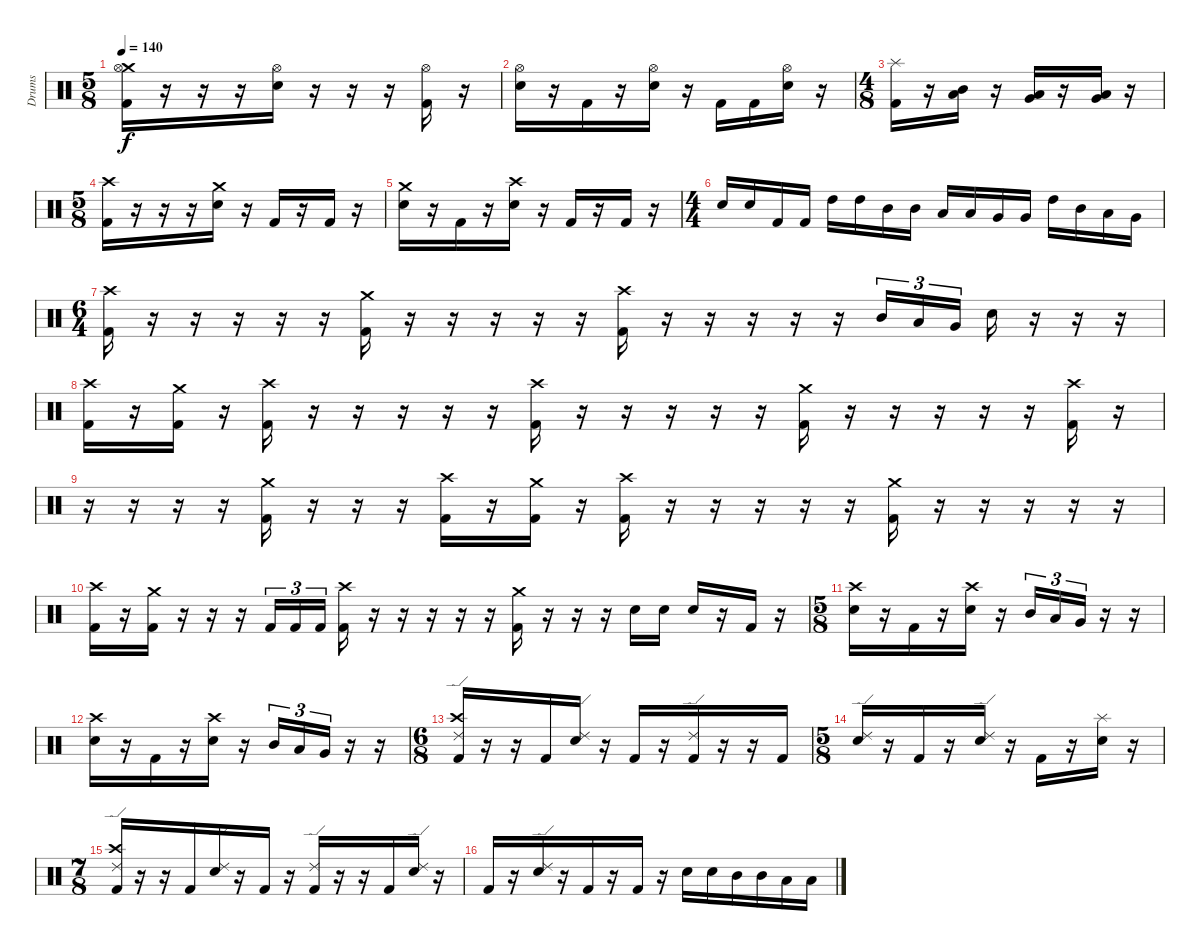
\track ("Drums" "Drums") {instrument percussion}
\staff {score}
\articulation defaults
\ts (5 8)
\tempo 140
\clef neutral
\ks c
("Crash medium (hit)" "Hi-Hat (open)" "Kick (hit) 2").16{dy f} r.16 r.16 r.16 ("Hi-Hat (open)" "Electric Snare (hit)").16 r.16 r.16 r.16 ("Hi-Hat (open)" "Kick (hit) 2").16 r.16 |
("Hi-Hat (open)" "Electric Snare (hit)").16 r.16 "Kick (hit) 2".16 r.16 ("Hi-Hat (open)" "Electric Snare (hit)").16 r.16 "Kick (hit) 2".16 "Kick (hit) 2".16 ("Hi-Hat (open)" "Electric Snare (hit)").16 r.16 |
\ts (4 8)
("Splash (hit)" "Kick (hit) 2").16 r.16 ("Low Tom (hit)" "Mid Tom (hit)").16 r.16 ("Very Low Tom (hit)" "Low Tom (hit)").16 r.16 ("Very Low Tom (hit)" "Low Tom (hit)").16 r.16 |
\ts (5 8)
("Crash high (hit)" "Kick (hit) 2").16 r.16 r.16 r.16 ("Crash medium (hit)" "Electric Snare (hit)").16 r.16 "Kick (hit) 2".16 r.16 "Kick (hit) 2".16 r.16 |
("Crash medium (hit)" "Electric Snare (hit)").16 r.16 "Kick (hit) 2".16 r.16 ("Crash high (hit)" "Electric Snare (hit)").16 r.16 "Kick (hit) 2".16 r.16 "Kick (hit) 2".16 r.16 |
\ts (4 4)
"Electric Snare (hit)".16 "Electric Snare (hit)".16 "Kick (hit) 2".16 "Kick (hit) 2".16 "High Tom (hit)".16 "High Tom (hit)".16 "Mid Tom (hit)".16 "Mid Tom (hit)".16 "Low Tom (hit)".16 "Low Tom (hit)".16 "Very Low Tom (hit)".16 "Very Low Tom (hit)".16 "High Tom (hit)".16 "Mid Tom (hit)".16 "Low Tom (hit)".16 "Very Low Tom (hit)".16 |
\ts (6 4)
("Crash high (hit)" "Kick (hit) 2").16 r.16 r.16 r.16 r.16 r.16 ("Crash medium (hit)" "Kick (hit) 2").16 r.16 r.16 r.16 r.16 r.16 ("Crash high (hit)" "Kick (hit) 2").16 r.16 r.16 r.16 r.16 r.16 "Mid Tom (hit)".16{tu (3 2)} "Low Tom (hit)".16{tu (3 2)} "Very Low Tom (hit)".16{tu (3 2)} "Electric Snare (hit)".16 r.16 r.16 r.16 |
("Crash high (hit)" "Kick (hit) 2").16 r.16 ("Crash medium (hit)" "Kick (hit) 2").16 r.16 ("Crash high (hit)" "Kick (hit) 2").16 r.16 r.16 r.16 r.16 r.16 ("Crash high (hit)" "Kick (hit) 2").16 r.16 r.16 r.16 r.16 r.16 ("Crash medium (hit)" "Kick (hit) 2").16 r.16 r.16 r.16 r.16 r.16 ("Crash high (hit)" "Kick (hit) 2").16 r.16 |
r.16 r.16 r.16 r.16 ("Crash medium (hit)" "Kick (hit) 2").16 r.16 r.16 r.16 ("Crash high (hit)" "Kick (hit) 2").16 r.16 ("Crash medium (hit)" "Kick (hit) 2").16 r.16 ("Crash high (hit)" "Kick (hit) 2").16 r.16 r.16 r.16 r.16 r.16 ("Crash medium (hit)" "Kick (hit) 2").16 r.16 r.16 r.16 r.16 r.16 |
("Crash high (hit)" "Kick (hit) 2").16 r.16 ("Crash medium (hit)" "Kick (hit) 2").16 r.16 r.16 r.16 "Kick (hit) 2".16{tu (3 2)} "Kick (hit) 2".16{tu (3 2)} "Kick (hit) 2".16{tu (3 2)} ("Crash high (hit)" "Kick (hit) 2").16 r.16 r.16 r.16 r.16 r.16 ("Crash medium (hit)" "Kick (hit) 2").16 r.16 r.16 r.16 "Electric Snare (hit)".16 "Electric Snare (hit)".16 "Electric Snare (hit)".16 r.16 "Kick (hit) 2".16 r.16 |
\ts (5 8)
("Crash high (hit)" "Electric Snare (hit)").16 r.16 "Kick (hit) 2".16 r.16 ("Crash high (hit)" "Electric Snare (hit)").16 r.16 "Mid Tom (hit)".16{tu (3 2)} "Low Tom (hit)".16{tu (3 2)} "Very Low Tom (hit)".16{tu (3 2)} r.16 r.16 |
("Crash high (hit)" "Electric Snare (hit)").16 r.16 "Kick (hit) 2".16 r.16 ("Crash high (hit)" "Electric Snare (hit)").16 r.16 "Mid Tom (hit)".16{tu (3 2)} "Low Tom (hit)".16{tu (3 2)} "Very Low Tom (hit)".16{tu (3 2)} r.16 r.16 |
\ts (6 8)
("Crash high (hit)" "Ride (edge) 2" "Kick (hit) 2").16 r.16 r.16 "Kick (hit) 2".16 ("Ride (edge) 2" "Electric Snare (hit)").16 r.16 "Kick (hit) 2".16 r.16 ("Ride (edge) 2" "Kick (hit) 2").16 r.16 r.16 "Kick (hit) 2".16 |
\ts (5 8)
("Ride (edge) 2" "Electric Snare (hit)").16 r.16 "Kick (hit) 2".16 r.16 ("Ride (edge) 2" "Electric Snare (hit)").16 r.16 "Kick (hit) 2".16 r.16 ("Splash (hit)" "Electric Snare (hit)").16 r.16 |
\ts (7 8)
("Crash high (hit)" "Ride (edge) 2" "Kick (hit) 2").16 r.16 r.16 "Kick (hit) 2".16 ("Ride (edge) 2" "Electric Snare (hit)").16 r.16 "Kick (hit) 2".16 r.16 ("Ride (edge) 2" "Kick (hit) 2").16 r.16 r.16 "Kick (hit) 2".16 ("Ride (edge) 2" "Electric Snare (hit)").16 r.16 |
"Kick (hit) 2".16 r.16 ("Ride (edge) 2" "Electric Snare (hit)").16 r.16 "Kick (hit) 2".16 r.16 "Kick (hit) 2".16 r.16 "Electric Snare (hit)".16 "Electric Snare (hit)".16 "Mid Tom (hit)".16 "Mid Tom (hit)".16 "Low Tom (hit)".16 "Low Tom (hit)".16
